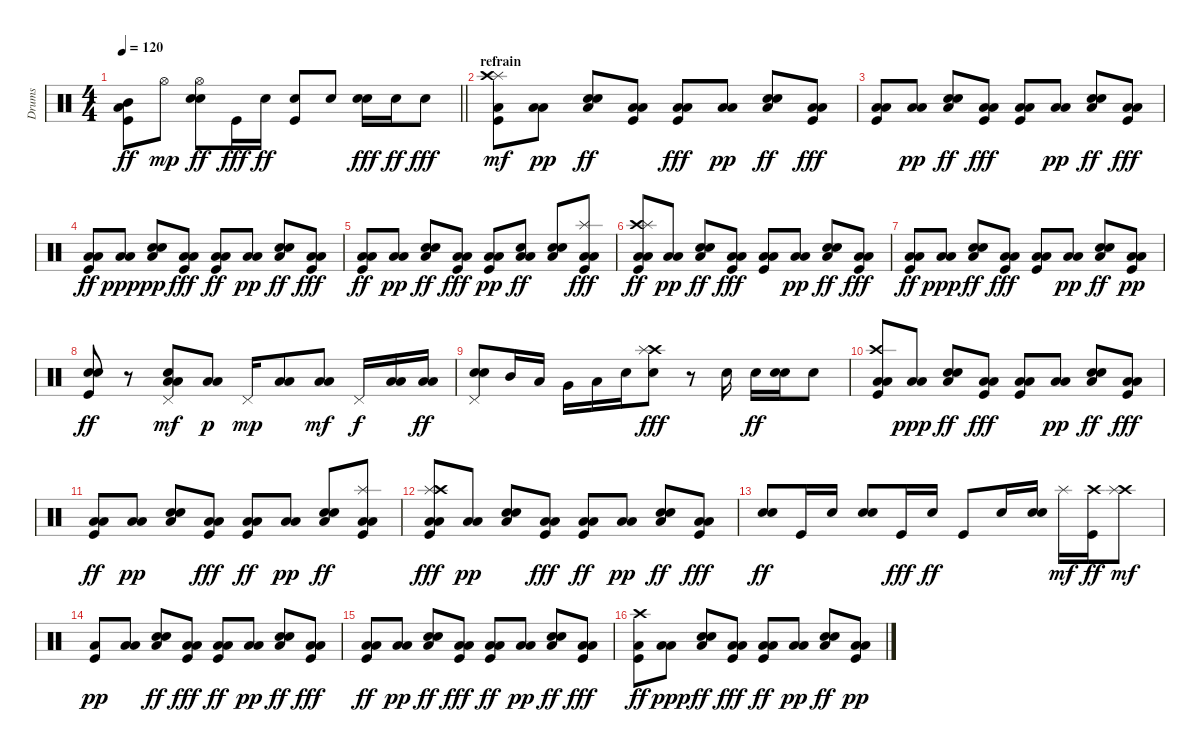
\track ("Drums" "Drums") {instrument percussion}
\staff {score}
\articulation defaults
\ts (4 4)
\tempo 120
\clef neutral
\barLineRight lightlight
\ks c
("Kick (hit)" "Mid Tom (hit)" "Low Tom (hit)").8{dy ff} "Hi-Hat (open)".8{dy mp} ("Hand Clap (hit)" "Snare (hit) 2" "Hi-Hat (open)").8{dy ff} "Kick (hit)".16{dy fff} "Snare (hit) 2".16{dy ff} ("Kick (hit)" "Snare (hit) 2").8 "Snare (hit) 2".8 ("Hand Clap (hit)" "Snare (hit) 2").16{dy fff} "Snare (hit) 2".16{dy ff} "Snare (hit) 2".8{dy fff} |
\section ("" "refrain")
("Kick (hit)" "Low Tom (hit)" "Splash (hit)" "Crash high (hit)").8{dy mf} ("Low Tom (hit)" "Low Floor Tom (hit)").8{dy pp} ("Low Floor Tom (hit)" "Hand Clap (hit)" "Snare (hit) 2").8{dy ff} ("Low Tom (hit)" "Low Floor Tom (hit)" "Kick (hit)").8 ("Low Tom (hit)" "Low Floor Tom (hit)" "Kick (hit)").8{dy fff} ("Low Tom (hit)" "Low Floor Tom (hit)").8{dy pp} ("Low Floor Tom (hit)" "Hand Clap (hit)" "Snare (hit) 2").8{dy ff} ("Low Tom (hit)" "Low Floor Tom (hit)" "Kick (hit)").8{dy fff} |
("Low Tom (hit)" "Low Floor Tom (hit)" "Kick (hit)").8 ("Low Tom (hit)" "Low Floor Tom (hit)").8{dy pp} ("Snare (hit) 2" "Low Floor Tom (hit)" "Hand Clap (hit)").8{dy ff} ("Low Tom (hit)" "Low Floor Tom (hit)" "Kick (hit)").8{dy fff} ("Low Tom (hit)" "Low Floor Tom (hit)" "Kick (hit)").8 ("Low Floor Tom (hit)" "Low Tom (hit)").8{dy pp} ("Snare (hit) 2" "Low Floor Tom (hit)" "Hand Clap (hit)").8{dy ff} ("Low Tom (hit)" "Low Floor Tom (hit)" "Kick (hit)").8{dy fff} |
("Low Tom (hit)" "Low Floor Tom (hit)" "Kick (hit)").8{dy ff} ("Low Floor Tom (hit)" "Low Tom (hit)").8{dy ppp} ("Hand Clap (hit)" "Snare (hit) 2" "Low Floor Tom (hit)").8{dy pp} ("Low Tom (hit)" "Low Floor Tom (hit)" "Kick (hit)").8{dy fff} ("Low Tom (hit)" "Low Floor Tom (hit)" "Kick (hit)").8{dy ff} ("Low Tom (hit)" "Low Floor Tom (hit)").8{dy pp} ("Low Floor Tom (hit)" "Hand Clap (hit)" "Snare (hit) 2").8{dy ff} ("Low Tom (hit)" "Low Floor Tom (hit)" "Kick (hit)").8{dy fff} |
("Low Tom (hit)" "Low Floor Tom (hit)" "Kick (hit)").8{dy ff} ("Low Tom (hit)" "Low Floor Tom (hit)").8{dy pp} ("Snare (hit) 2" "Low Floor Tom (hit)" "Hand Clap (hit)").8{dy ff} ("Low Tom (hit)" "Low Floor Tom (hit)" "Kick (hit)").8{dy fff} ("Kick (hit)" "Low Tom (hit)" "Low Floor Tom (hit)").8{dy pp} ("Low Tom (hit)" "Low Floor Tom (hit)" "Snare (hit) 2").8{dy ff} ("Low Floor Tom (hit)" "Hand Clap (hit)" "Snare (hit) 2").8 ("Splash (hit)" "Low Tom (hit)" "Low Floor Tom (hit)" "Kick (hit)").8{dy fff} |
("Low Tom (hit)" "Low Floor Tom (hit)" "Kick (hit)" "Crash high (hit)" "Splash (hit)").8{dy ff} ("Low Tom (hit)" "Low Floor Tom (hit)").8{dy pp} ("Snare (hit) 2" "Low Floor Tom (hit)" "Hand Clap (hit)").8{dy ff} ("Low Tom (hit)" "Low Floor Tom (hit)" "Kick (hit)").8{dy fff} ("Low Tom (hit)" "Low Floor Tom (hit)" "Kick (hit)").8 ("Low Floor Tom (hit)" "Low Tom (hit)").8{dy pp} ("Low Floor Tom (hit)" "Hand Clap (hit)" "Snare (hit) 2").8{dy ff} ("Low Tom (hit)" "Low Floor Tom (hit)" "Kick (hit)").8{dy fff} |
("Low Tom (hit)" "Low Floor Tom (hit)" "Kick (hit)").8{dy ff} ("Low Floor Tom (hit)" "Low Tom (hit)").8{dy ppp} ("Snare (hit) 2" "Low Floor Tom (hit)" "Hand Clap (hit)").8{dy ff} ("Low Tom (hit)" "Low Floor Tom (hit)" "Kick (hit)").8{dy fff} ("Low Tom (hit)" "Low Floor Tom (hit)" "Kick (hit)").8 ("Low Tom (hit)" "Low Floor Tom (hit)").8{dy pp} ("Low Floor Tom (hit)" "Hand Clap (hit)" "Snare (hit) 2").8{dy ff} ("Kick (hit)" "Low Tom (hit)" "Low Floor Tom (hit)").8{dy pp} |
("Electric Snare (hit)" "Kick (hit)" "Snare (hit) 2").8{dy ff} r.8 ("Hand Clap (hit)" "Low Floor Tom (hit)" "Low Tom (hit)" "Pedal Hi-Hat (hit)").8{dy mf} ("Low Tom (hit)" "Low Floor Tom (hit)").8{dy p} "Pedal Hi-Hat (hit)".16{dy mp} ("Low Tom (hit)" "Low Floor Tom (hit)").8 ("Low Floor Tom (hit)" "Low Tom (hit)").8{dy mf} "Pedal Hi-Hat (hit)".16{dy f} ("Low Floor Tom (hit)" "Low Tom (hit)").16 ("Low Floor Tom (hit)" "Low Tom (hit)").16{dy ff} |
("Pedal Hi-Hat (hit)" "Electric Snare (hit)" "Snare (hit) 2").8 "Mid Tom (hit)".16 "Low Tom (hit)".16 "Very Low Tom (hit)".16 "Low Floor Tom (hit)".16 "Hand Clap (hit)".16 ("Crash high (hit)" "Splash (hit)" "Snare (hit) 2").8{dy fff} r.8 "Snare (hit) 2".16 "Snare (hit) 2".16{dy ff} ("Hand Clap (hit)" "Snare (hit) 2").16 "Snare (hit) 2".8 |
("Crash high (hit)" "Low Tom (hit)" "Low Floor Tom (hit)" "Kick (hit)").8 ("Low Floor Tom (hit)" "Low Tom (hit)").8{dy ppp} ("Snare (hit) 2" "Low Floor Tom (hit)" "Hand Clap (hit)").8{dy ff} ("Low Tom (hit)" "Low Floor Tom (hit)" "Kick (hit)").8{dy fff} ("Low Tom (hit)" "Low Floor Tom (hit)" "Kick (hit)").8 ("Low Tom (hit)" "Low Floor Tom (hit)").8{dy pp} ("Low Floor Tom (hit)" "Hand Clap (hit)" "Snare (hit) 2").8{dy ff} ("Low Tom (hit)" "Low Floor Tom (hit)" "Kick (hit)").8{dy fff} |
("Low Tom (hit)" "Low Floor Tom (hit)" "Kick (hit)").8{dy ff} ("Low Tom (hit)" "Low Floor Tom (hit)").8{dy pp} ("Hand Clap (hit)" "Snare (hit) 2" "Low Floor Tom (hit)").8 ("Low Tom (hit)" "Low Floor Tom (hit)" "Kick (hit)").8{dy fff} ("Low Tom (hit)" "Low Floor Tom (hit)" "Kick (hit)").8{dy ff} ("Low Tom (hit)" "Low Floor Tom (hit)").8{dy pp} ("Snare (hit) 2" "Low Floor Tom (hit)" "Hand Clap (hit)").8{dy ff} ("Low Tom (hit)" "Low Floor Tom (hit)" "Kick (hit)" "Splash (hit)").8 |
("Splash (hit)" "Low Tom (hit)" "Low Floor Tom (hit)" "Kick (hit)" "Crash high (hit)").8{dy fff} ("Low Tom (hit)" "Low Floor Tom (hit)").8{dy pp} ("Hand Clap (hit)" "Snare (hit) 2" "Low Floor Tom (hit)").8 ("Low Tom (hit)" "Low Floor Tom (hit)" "Kick (hit)").8{dy fff} ("Low Tom (hit)" "Low Floor Tom (hit)" "Kick (hit)").8{dy ff} ("Low Floor Tom (hit)" "Low Tom (hit)").8{dy pp} ("Low Floor Tom (hit)" "Hand Clap (hit)" "Snare (hit) 2").8{dy ff} ("Low Tom (hit)" "Low Floor Tom (hit)" "Kick (hit)").8{dy fff} |
("Snare (hit) 2" "Snare (hit) 2").8{dy ff} "Kick (hit)".16 "Snare (hit) 2".16 ("Hand Clap (hit)" "Snare (hit) 2").8 "Kick (hit)".16{dy fff} "Snare (hit) 2".16{dy ff} "Kick (hit)".8 "Snare (hit) 2".16 ("Hand Clap (hit)" "Snare (hit) 2").16 "Splash (hit)".16{dy mf} ("Crash high (hit)" "Kick (hit)").16{dy ff} ("Crash high (hit)" "Splash (hit)").8{dy mf} |
("Kick (hit)" "Low Tom (hit)").8{dy pp} ("Low Tom (hit)" "Low Floor Tom (hit)").8 ("Snare (hit) 2" "Low Floor Tom (hit)" "Hand Clap (hit)").8{dy ff} ("Low Tom (hit)" "Low Floor Tom (hit)" "Kick (hit)").8{dy fff} ("Low Tom (hit)" "Low Floor Tom (hit)" "Kick (hit)").8{dy ff} ("Low Tom (hit)" "Low Floor Tom (hit)").8{dy pp} ("Snare (hit) 2" "Low Floor Tom (hit)" "Hand Clap (hit)").8{dy ff} ("Low Tom (hit)" "Low Floor Tom (hit)" "Kick (hit)").8{dy fff} |
("Low Tom (hit)" "Low Floor Tom (hit)" "Kick (hit)").8{dy ff} ("Low Tom (hit)" "Low Floor Tom (hit)").8{dy pp} ("Snare (hit) 2" "Low Floor Tom (hit)" "Hand Clap (hit)").8{dy ff} ("Low Tom (hit)" "Low Floor Tom (hit)" "Kick (hit)").8{dy fff} ("Low Tom (hit)" "Low Floor Tom (hit)" "Kick (hit)").8{dy ff} ("Low Floor Tom (hit)" "Low Tom (hit)").8{dy pp} ("Low Floor Tom (hit)" "Hand Clap (hit)" "Snare (hit) 2").8{dy ff} ("Low Tom (hit)" "Low Floor Tom (hit)" "Kick (hit)").8{dy fff} |
("Crash high (hit)" "Low Tom (hit)" "Kick (hit)").8{dy ff} ("Low Floor Tom (hit)" "Low Tom (hit)").8{dy ppp} ("Low Floor Tom (hit)" "Hand Clap (hit)" "Snare (hit) 2").8{dy ff} ("Low Tom (hit)" "Low Floor Tom (hit)" "Kick (hit)").8{dy fff} ("Low Tom (hit)" "Low Floor Tom (hit)" "Kick (hit)").8{dy ff} ("Low Tom (hit)" "Low Floor Tom (hit)").8{dy pp} ("Low Floor Tom (hit)" "Hand Clap (hit)" "Snare (hit) 2").8{dy ff} ("Kick (hit)" "Low Tom (hit)" "Low Floor Tom (hit)").8{dy pp}
